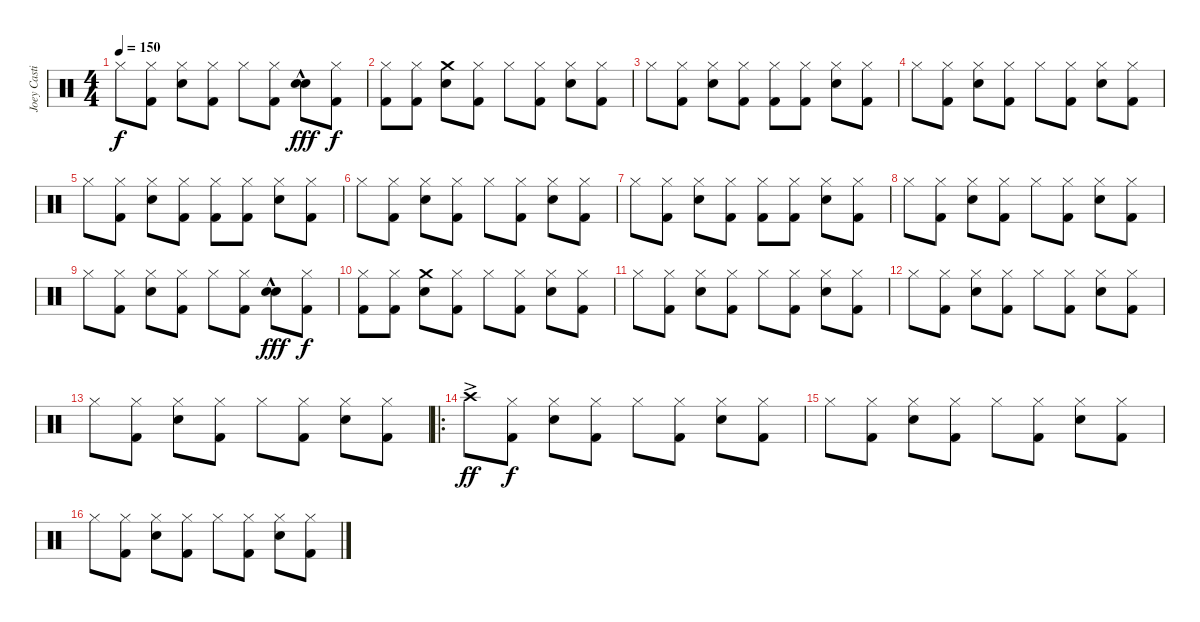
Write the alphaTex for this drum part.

\track ("Joey Castillo" "Joey Casti") {instrument percussion}
\staff {score}
\articulation defaults
\ts (4 4)
\tempo 150
\clef neutral
\ks c "Hi-Hat (closed)".8{dy f}
("Hi-Hat (closed)" "Kick (hit) 2").8 ("Hi-Hat (closed)" "Snare (hit) 2").8 ("Hi-Hat (closed)" "Kick (hit) 2").8 "Hi-Hat (closed)".8 ("Hi-Hat (closed)" "Kick (hit) 2").8 ("Snare (hit) 2"{hac} "Snare (hit) 2"{hac}).8{bd 240 dy fff} ("Hi-Hat (closed)" "Kick (hit) 2").8{dy f} |
("Hi-Hat (closed)" "Kick (hit) 2").8 ("Hi-Hat (closed)" "Kick (hit) 2").8 ("Crash medium (hit)" "Snare (hit) 2").8 ("Hi-Hat (closed)" "Kick (hit) 2").8 "Hi-Hat (closed)".8 ("Hi-Hat (closed)" "Kick (hit) 2").8 ("Hi-Hat (closed)" "Snare (hit) 2").8 ("Hi-Hat (closed)" "Kick (hit) 2").8 |
"Hi-Hat (closed)".8 ("Hi-Hat (closed)" "Kick (hit) 2").8 ("Hi-Hat (closed)" "Snare (hit) 2").8 ("Hi-Hat (closed)" "Kick (hit) 2").8 ("Hi-Hat (closed)" "Kick (hit) 2").8 ("Hi-Hat (closed)" "Kick (hit) 2").8 ("Hi-Hat (closed)" "Snare (hit) 2").8 ("Hi-Hat (closed)" "Kick (hit) 2").8 |
"Hi-Hat (closed)".8 ("Hi-Hat (closed)" "Kick (hit) 2").8 ("Hi-Hat (closed)" "Snare (hit) 2").8 ("Hi-Hat (closed)" "Kick (hit) 2").8 "Hi-Hat (closed)".8 ("Hi-Hat (closed)" "Kick (hit) 2").8 ("Hi-Hat (closed)" "Snare (hit) 2").8 ("Hi-Hat (closed)" "Kick (hit) 2").8 |
"Hi-Hat (closed)".8 ("Hi-Hat (closed)" "Kick (hit) 2").8 ("Hi-Hat (closed)" "Snare (hit) 2").8 ("Hi-Hat (closed)" "Kick (hit) 2").8 ("Hi-Hat (closed)" "Kick (hit) 2").8 ("Hi-Hat (closed)" "Kick (hit) 2").8 ("Hi-Hat (closed)" "Snare (hit) 2").8 ("Hi-Hat (closed)" "Kick (hit) 2").8 |
"Hi-Hat (closed)".8 ("Hi-Hat (closed)" "Kick (hit) 2").8 ("Hi-Hat (closed)" "Snare (hit) 2").8 ("Hi-Hat (closed)" "Kick (hit) 2").8 "Hi-Hat (closed)".8 ("Hi-Hat (closed)" "Kick (hit) 2").8 ("Hi-Hat (closed)" "Snare (hit) 2").8 ("Hi-Hat (closed)" "Kick (hit) 2").8 |
"Hi-Hat (closed)".8 ("Hi-Hat (closed)" "Kick (hit) 2").8 ("Hi-Hat (closed)" "Snare (hit) 2").8 ("Hi-Hat (closed)" "Kick (hit) 2").8 ("Hi-Hat (closed)" "Kick (hit) 2").8 ("Hi-Hat (closed)" "Kick (hit) 2").8 ("Hi-Hat (closed)" "Snare (hit) 2").8 ("Hi-Hat (closed)" "Kick (hit) 2").8 |
"Hi-Hat (closed)".8 ("Hi-Hat (closed)" "Kick (hit) 2").8 ("Hi-Hat (closed)" "Snare (hit) 2").8 ("Hi-Hat (closed)" "Kick (hit) 2").8 "Hi-Hat (closed)".8 ("Hi-Hat (closed)" "Kick (hit) 2").8 ("Hi-Hat (closed)" "Snare (hit) 2").8 ("Hi-Hat (closed)" "Kick (hit) 2").8 |
"Hi-Hat (closed)".8 ("Hi-Hat (closed)" "Kick (hit) 2").8 ("Hi-Hat (closed)" "Snare (hit) 2").8 ("Hi-Hat (closed)" "Kick (hit) 2").8 "Hi-Hat (closed)".8 ("Hi-Hat (closed)" "Kick (hit) 2").8 ("Snare (hit) 2"{hac} "Snare (hit) 2"{hac}).8{bd 240 dy fff} ("Hi-Hat (closed)" "Kick (hit) 2").8{dy f} |
("Hi-Hat (closed)" "Kick (hit) 2").8 ("Hi-Hat (closed)" "Kick (hit) 2").8 ("Crash medium (hit)" "Snare (hit) 2").8 ("Hi-Hat (closed)" "Kick (hit) 2").8 "Hi-Hat (closed)".8 ("Hi-Hat (closed)" "Kick (hit) 2").8 ("Hi-Hat (closed)" "Snare (hit) 2").8 ("Hi-Hat (closed)" "Kick (hit) 2").8 |
"Hi-Hat (closed)".8 ("Hi-Hat (closed)" "Kick (hit) 2").8 ("Hi-Hat (closed)" "Snare (hit) 2").8 ("Hi-Hat (closed)" "Kick (hit) 2").8 "Hi-Hat (closed)".8 ("Hi-Hat (closed)" "Kick (hit) 2").8 ("Hi-Hat (closed)" "Snare (hit) 2").8 ("Hi-Hat (closed)" "Kick (hit) 2").8 |
"Hi-Hat (closed)".8 ("Hi-Hat (closed)" "Kick (hit) 2").8 ("Hi-Hat (closed)" "Snare (hit) 2").8 ("Hi-Hat (closed)" "Kick (hit) 2").8 "Hi-Hat (closed)".8 ("Hi-Hat (closed)" "Kick (hit) 2").8 ("Hi-Hat (closed)" "Snare (hit) 2").8 ("Hi-Hat (closed)" "Kick (hit) 2").8 |
"Hi-Hat (closed)".8 ("Hi-Hat (closed)" "Kick (hit) 2").8 ("Hi-Hat (closed)" "Snare (hit) 2").8 ("Hi-Hat (closed)" "Kick (hit) 2").8 "Hi-Hat (closed)".8 ("Hi-Hat (closed)" "Kick (hit) 2").8 ("Hi-Hat (closed)" "Snare (hit) 2").8 ("Hi-Hat (closed)" "Kick (hit) 2").8 |
\ro "Crash high (hit)"{ac}.8{dy ff}
("Hi-Hat (closed)" "Kick (hit) 2").8{dy f} ("Hi-Hat (closed)" "Snare (hit) 2").8 ("Hi-Hat (closed)" "Kick (hit) 2").8 "Hi-Hat (closed)".8 ("Hi-Hat (closed)" "Kick (hit) 2").8 ("Hi-Hat (closed)" "Snare (hit) 2").8 ("Hi-Hat (closed)" "Kick (hit) 2").8 |
"Hi-Hat (closed)".8 ("Hi-Hat (closed)" "Kick (hit) 2").8 ("Hi-Hat (closed)" "Snare (hit) 2").8 ("Hi-Hat (closed)" "Kick (hit) 2").8 "Hi-Hat (closed)".8 ("Hi-Hat (closed)" "Kick (hit) 2").8 ("Hi-Hat (closed)" "Snare (hit) 2").8 ("Hi-Hat (closed)" "Kick (hit) 2").8 |
"Hi-Hat (closed)".8 ("Hi-Hat (closed)" "Kick (hit) 2").8 ("Hi-Hat (closed)" "Snare (hit) 2").8 ("Hi-Hat (closed)" "Kick (hit) 2").8 "Hi-Hat (closed)".8 ("Hi-Hat (closed)" "Kick (hit) 2").8 ("Hi-Hat (closed)" "Snare (hit) 2").8 ("Hi-Hat (closed)" "Kick (hit) 2").8
